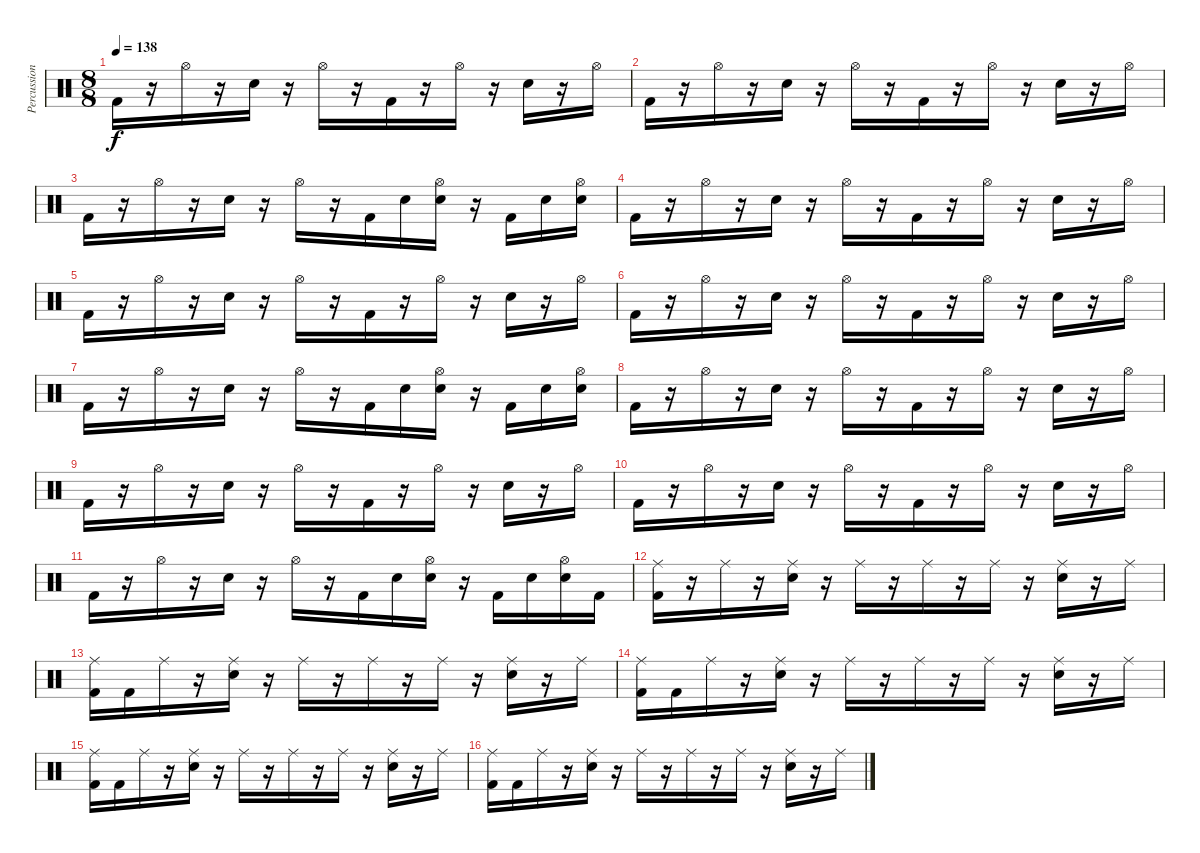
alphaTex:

\track ("Percussion" "Percussion") {instrument percussion}
\staff {score}
\articulation defaults
\ts (8 8)
\tempo 138
\clef neutral
\ks c "Kick (hit) 2".16{dy f}
r.16 "Hi-Hat (open)".16 r.16 "Electric Snare (hit)".16 r.16 "Hi-Hat (open)".16 r.16 "Kick (hit) 2".16 r.16 "Hi-Hat (open)".16 r.16 "Electric Snare (hit)".16 r.16 "Hi-Hat (open)".16 |
"Kick (hit) 2".16 r.16 "Hi-Hat (open)".16 r.16 "Electric Snare (hit)".16 r.16 "Hi-Hat (open)".16 r.16 "Kick (hit) 2".16 r.16 "Hi-Hat (open)".16 r.16 "Electric Snare (hit)".16 r.16 "Hi-Hat (open)".16 |
"Kick (hit) 2".16 r.16 "Hi-Hat (open)".16 r.16 "Electric Snare (hit)".16 r.16 "Hi-Hat (open)".16 r.16 "Kick (hit) 2".16 "Electric Snare (hit)".16 ("Hi-Hat (open)" "Electric Snare (hit)").16 r.16 "Kick (hit) 2".16 "Electric Snare (hit)".16 ("Hi-Hat (open)" "Electric Snare (hit)").16 |
"Kick (hit) 2".16 r.16 "Hi-Hat (open)".16 r.16 "Electric Snare (hit)".16 r.16 "Hi-Hat (open)".16 r.16 "Kick (hit) 2".16 r.16 "Hi-Hat (open)".16 r.16 "Electric Snare (hit)".16 r.16 "Hi-Hat (open)".16 |
"Kick (hit) 2".16 r.16 "Hi-Hat (open)".16 r.16 "Electric Snare (hit)".16 r.16 "Hi-Hat (open)".16 r.16 "Kick (hit) 2".16 r.16 "Hi-Hat (open)".16 r.16 "Electric Snare (hit)".16 r.16 "Hi-Hat (open)".16 |
"Kick (hit) 2".16 r.16 "Hi-Hat (open)".16 r.16 "Electric Snare (hit)".16 r.16 "Hi-Hat (open)".16 r.16 "Kick (hit) 2".16 r.16 "Hi-Hat (open)".16 r.16 "Electric Snare (hit)".16 r.16 "Hi-Hat (open)".16 |
"Kick (hit) 2".16 r.16 "Hi-Hat (open)".16 r.16 "Electric Snare (hit)".16 r.16 "Hi-Hat (open)".16 r.16 "Kick (hit) 2".16 "Electric Snare (hit)".16 ("Hi-Hat (open)" "Electric Snare (hit)").16 r.16 "Kick (hit) 2".16 "Electric Snare (hit)".16 ("Hi-Hat (open)" "Electric Snare (hit)").16 |
"Kick (hit) 2".16 r.16 "Hi-Hat (open)".16 r.16 "Electric Snare (hit)".16 r.16 "Hi-Hat (open)".16 r.16 "Kick (hit) 2".16 r.16 "Hi-Hat (open)".16 r.16 "Electric Snare (hit)".16 r.16 "Hi-Hat (open)".16 |
"Kick (hit) 2".16 r.16 "Hi-Hat (open)".16 r.16 "Electric Snare (hit)".16 r.16 "Hi-Hat (open)".16 r.16 "Kick (hit) 2".16 r.16 "Hi-Hat (open)".16 r.16 "Electric Snare (hit)".16 r.16 "Hi-Hat (open)".16 |
"Kick (hit) 2".16 r.16 "Hi-Hat (open)".16 r.16 "Electric Snare (hit)".16 r.16 "Hi-Hat (open)".16 r.16 "Kick (hit) 2".16 r.16 "Hi-Hat (open)".16 r.16 "Electric Snare (hit)".16 r.16 "Hi-Hat (open)".16 |
"Kick (hit) 2".16 r.16 "Hi-Hat (open)".16 r.16 "Electric Snare (hit)".16 r.16 "Hi-Hat (open)".16 r.16 "Kick (hit) 2".16 "Electric Snare (hit)".16 ("Hi-Hat (open)" "Electric Snare (hit)").16 r.16 "Kick (hit) 2".16 "Electric Snare (hit)".16 ("Hi-Hat (open)" "Electric Snare (hit)").16 "Kick (hit) 2".16 |
("Ride (middle)" "Kick (hit) 2").16 r.16 "Ride (middle)".16 r.16 ("Ride (middle)" "Electric Snare (hit)").16 r.16 "Ride (middle)".16 r.16 "Ride (middle)".16 r.16 "Ride (middle)".16 r.16 ("Ride (middle)" "Electric Snare (hit)").16 r.16 "Ride (middle)".16 |
("Ride (middle)" "Kick (hit) 2").16 "Kick (hit) 2".16 "Ride (middle)".16 r.16 ("Ride (middle)" "Electric Snare (hit)").16 r.16 "Ride (middle)".16 r.16 "Ride (middle)".16 r.16 "Ride (middle)".16 r.16 ("Ride (middle)" "Electric Snare (hit)").16 r.16 "Ride (middle)".16 |
("Ride (middle)" "Kick (hit) 2").16 "Kick (hit) 2".16 "Ride (middle)".16 r.16 ("Ride (middle)" "Electric Snare (hit)").16 r.16 "Ride (middle)".16 r.16 "Ride (middle)".16 r.16 "Ride (middle)".16 r.16 ("Ride (middle)" "Electric Snare (hit)").16 r.16 "Ride (middle)".16 |
("Ride (middle)" "Kick (hit) 2").16 "Kick (hit) 2".16 "Ride (middle)".16 r.16 ("Ride (middle)" "Electric Snare (hit)").16 r.16 "Ride (middle)".16 r.16 "Ride (middle)".16 r.16 "Ride (middle)".16 r.16 ("Ride (middle)" "Electric Snare (hit)").16 r.16 "Ride (middle)".16 |
("Ride (middle)" "Kick (hit) 2").16 "Kick (hit) 2".16 "Ride (middle)".16 r.16 ("Ride (middle)" "Electric Snare (hit)").16 r.16 "Ride (middle)".16 r.16 "Ride (middle)".16 r.16 "Ride (middle)".16 r.16 ("Ride (middle)" "Electric Snare (hit)").16 r.16 "Ride (middle)".16
